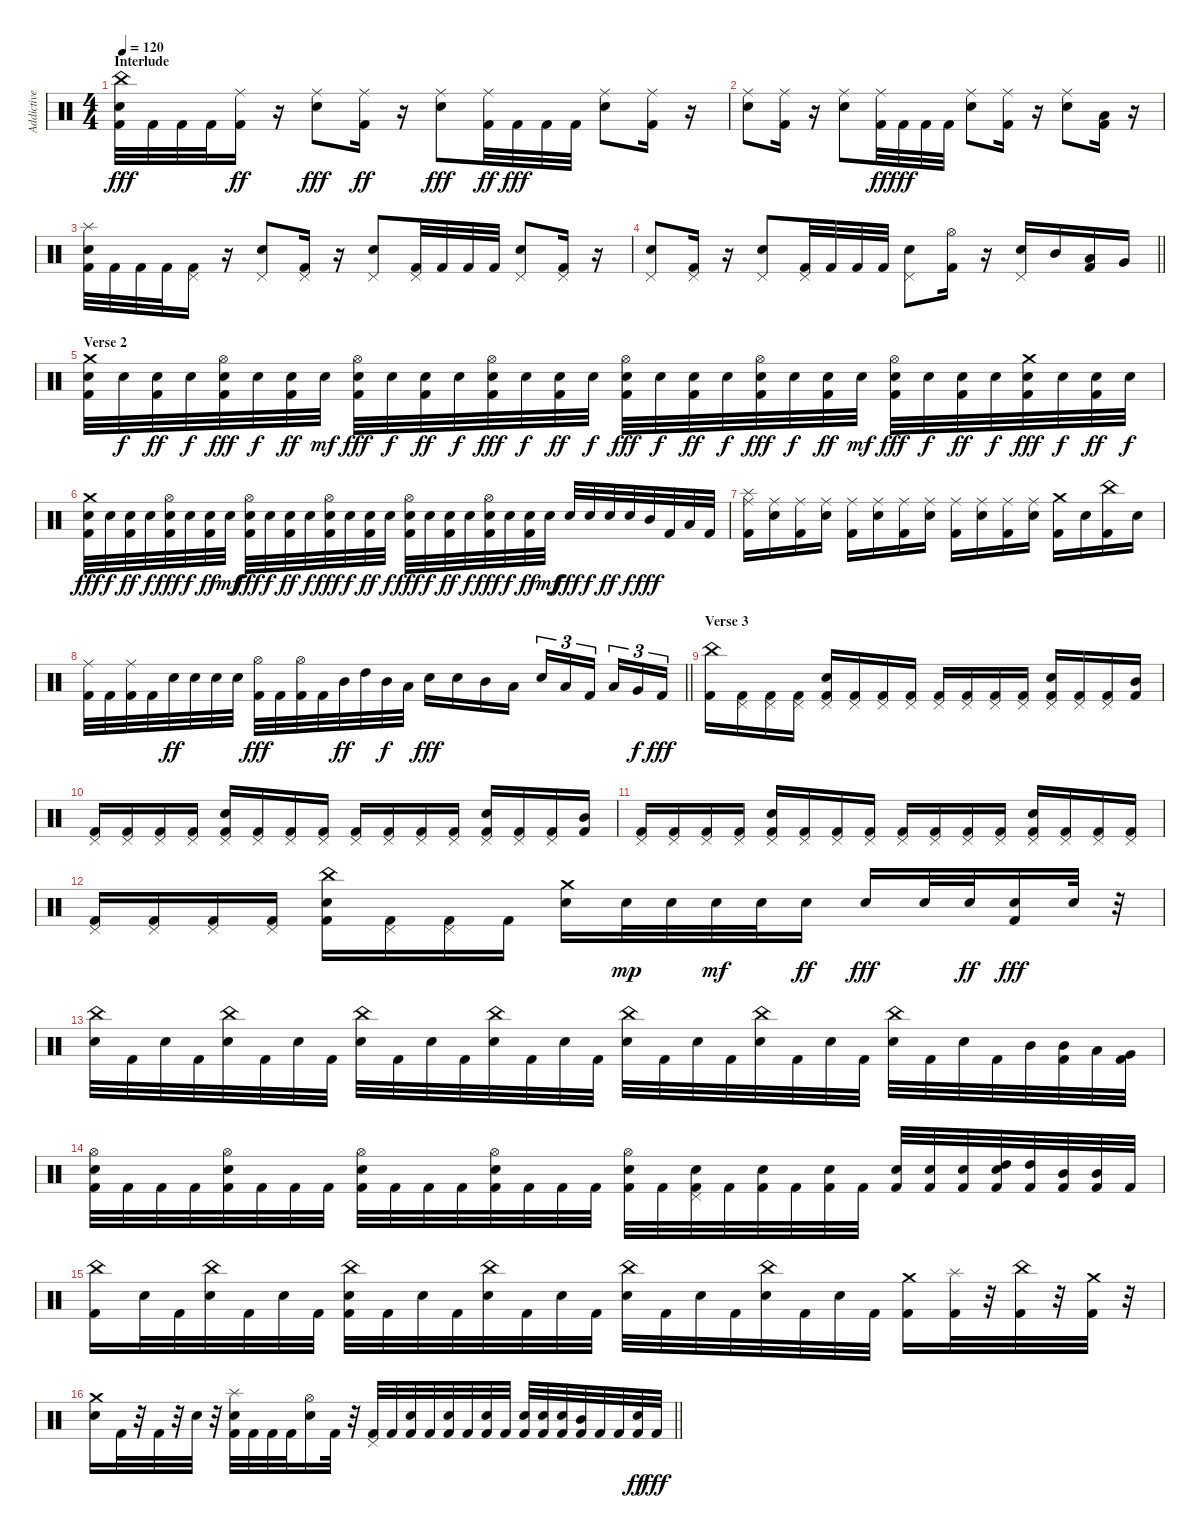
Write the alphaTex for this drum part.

\track ("Addictive Drums 07" "Addictive ") {instrument percussion}
\staff {score}
\articulation defaults
\ts (4 4)
\section ("" "Interlude")
\tempo 120
\clef neutral
\ks c
("Kick (hit) 2" "Snare (hit) 2" "China (hit)").32{dy fff} "Kick (hit) 2".32 "Kick (hit) 2".32 "Kick (hit) 2".32 ("Kick (hit) 2" "Ride (middle)").16{dy ff} r.16 ("Snare (hit) 2" "Ride (middle)").8{dy fff} ("Kick (hit) 2" "Ride (middle)").16{dy ff} r.16 ("Snare (hit) 2" "Ride (middle)").8{dy fff} ("Kick (hit) 2" "Ride (middle)").32{dy ff} "Kick (hit) 2".32{dy fff} "Kick (hit) 2".32 "Kick (hit) 2".32 ("Snare (hit) 2" "Ride (middle)").8 ("Kick (hit) 2" "Ride (middle)").16 r.16 |
("Snare (hit) 2" "Ride (middle)").8 ("Kick (hit) 2" "Ride (middle)").16 r.16 ("Snare (hit) 2" "Ride (middle)").8 ("Kick (hit) 2" "Ride (middle)").32{dy ff} "Kick (hit) 2".32{dy fff} "Kick (hit) 2".32 "Kick (hit) 2".32 ("Snare (hit) 2" "Ride (middle)").8 ("Kick (hit) 2" "Ride (middle)").16 r.16 ("Snare (hit) 2" "Ride (middle)").8 ("Kick (hit) 2" "Low Tom (hit)").16 r.16 |
("Kick (hit) 2" "Snare (hit) 2" "Splash (hit)").32 "Kick (hit) 2".32 "Kick (hit) 2".32 "Kick (hit) 2".32 ("Kick (hit) 2" "Pedal Hi-Hat (hit)").16 r.16 ("Snare (hit) 2" "Pedal Hi-Hat (hit)").8 ("Kick (hit) 2" "Pedal Hi-Hat (hit)").16 r.16 ("Snare (hit) 2" "Pedal Hi-Hat (hit)").8 ("Kick (hit) 2" "Pedal Hi-Hat (hit)").32 "Kick (hit) 2".32 "Kick (hit) 2".32 "Kick (hit) 2".32 ("Snare (hit) 2" "Pedal Hi-Hat (hit)").8 ("Kick (hit) 2" "Pedal Hi-Hat (hit)").16 r.16 |
\barLineRight lightlight
("Snare (hit) 2" "Pedal Hi-Hat (hit)").8 ("Kick (hit) 2" "Pedal Hi-Hat (hit)").16 r.16 ("Snare (hit) 2" "Pedal Hi-Hat (hit)").8 ("Kick (hit) 2" "Pedal Hi-Hat (hit)").32 "Kick (hit) 2".32 "Kick (hit) 2".32 "Kick (hit) 2".32 ("Snare (hit) 2" "Pedal Hi-Hat (hit)").8 ("Kick (hit) 2" "Hi-Hat (open)").16 r.16 ("Snare (hit) 2" "Pedal Hi-Hat (hit)").16 "Mid Tom (hit)".16 ("Kick (hit) 2" "Low Tom (hit)").16 "Very Low Tom (hit)".16 |
\section ("" "Verse 2")
("Kick (hit) 2" "Snare (hit) 2" "Crash medium (hit)").32 "Snare (hit) 2".32{dy f} ("Kick (hit) 2" "Snare (hit) 2").32{dy ff} "Snare (hit) 2".32{dy f} ("Kick (hit) 2" "Snare (hit) 2" "Hi-Hat (open)").32{dy fff} "Snare (hit) 2".32{dy f} ("Kick (hit) 2" "Snare (hit) 2").32{dy ff} "Snare (hit) 2".32{dy mf} ("Kick (hit) 2" "Snare (hit) 2" "Hi-Hat (open)").32{dy fff} "Snare (hit) 2".32{dy f} ("Kick (hit) 2" "Snare (hit) 2").32{dy ff} "Snare (hit) 2".32{dy f} ("Kick (hit) 2" "Snare (hit) 2" "Hi-Hat (open)").32{dy fff} "Snare (hit) 2".32{dy f} ("Kick (hit) 2" "Snare (hit) 2").32{dy ff} "Snare (hit) 2".32{dy f} ("Kick (hit) 2" "Snare (hit) 2" "Hi-Hat (open)").32{dy fff} "Snare (hit) 2".32{dy f} ("Kick (hit) 2" "Snare (hit) 2").32{dy ff} "Snare (hit) 2".32{dy f} ("Kick (hit) 2" "Snare (hit) 2" "Hi-Hat (open)").32{dy fff} "Snare (hit) 2".32{dy f} ("Kick (hit) 2" "Snare (hit) 2").32{dy ff} "Snare (hit) 2".32{dy mf} ("Kick (hit) 2" "Snare (hit) 2" "Hi-Hat (open)").32{dy fff} "Snare (hit) 2".32{dy f} ("Kick (hit) 2" "Snare (hit) 2").32{dy ff} "Snare (hit) 2".32{dy f} ("Kick (hit) 2" "Snare (hit) 2" "Crash medium (hit)").32{dy fff} "Snare (hit) 2".32{dy f} ("Kick (hit) 2" "Snare (hit) 2").32{dy ff} "Snare (hit) 2".32{dy f} |
("Kick (hit) 2" "Snare (hit) 2" "Crash medium (hit)").32{dy fff} "Snare (hit) 2".32{dy f} ("Kick (hit) 2" "Snare (hit) 2").32{dy ff} "Snare (hit) 2".32{dy f} ("Kick (hit) 2" "Snare (hit) 2" "Hi-Hat (open)").32{dy fff} "Snare (hit) 2".32{dy f} ("Kick (hit) 2" "Snare (hit) 2").32{dy ff} "Snare (hit) 2".32{dy mf} ("Kick (hit) 2" "Snare (hit) 2" "Hi-Hat (open)").32{dy fff} "Snare (hit) 2".32{dy f} ("Kick (hit) 2" "Snare (hit) 2").32{dy ff} "Snare (hit) 2".32{dy f} ("Kick (hit) 2" "Snare (hit) 2" "Hi-Hat (open)").32{dy fff} "Snare (hit) 2".32{dy f} ("Kick (hit) 2" "Snare (hit) 2").32{dy ff} "Snare (hit) 2".32{dy f} ("Kick (hit) 2" "Snare (hit) 2" "Hi-Hat (open)").32{dy fff} "Snare (hit) 2".32{dy f} ("Kick (hit) 2" "Snare (hit) 2").32{dy ff} "Snare (hit) 2".32{dy f} ("Kick (hit) 2" "Snare (hit) 2" "Hi-Hat (open)").32{dy fff} "Snare (hit) 2".32{dy f} ("Kick (hit) 2" "Snare (hit) 2").32{dy ff} "Snare (hit) 2".32{dy mf} "Snare (hit) 2".32{dy fff} "Snare (hit) 2".32{dy f} "Snare (hit) 2".32{dy ff} "Snare (hit) 2".32{dy f} "Mid Tom (hit)".32{dy fff} "Kick (hit) 2".32 "Low Tom (hit)".32 "Kick (hit) 2".32 |
("Kick (hit) 2" "Ride (middle)" "Splash (hit)").16 ("Snare (hit) 2" "Ride (middle)").16 ("Kick (hit) 2" "Ride (middle)").16 ("Snare (hit) 2" "Ride (middle)").16 ("Kick (hit) 2" "Ride (middle)").16 ("Snare (hit) 2" "Ride (middle)").16 ("Kick (hit) 2" "Ride (middle)").16 ("Snare (hit) 2" "Ride (middle)").16 ("Kick (hit) 2" "Ride (middle)").16 ("Snare (hit) 2" "Ride (middle)").16 ("Kick (hit) 2" "Ride (middle)").16 ("Snare (hit) 2" "Ride (middle)").16 ("Kick (hit) 2" "Crash medium (hit)").16 "Snare (hit) 2".16 ("Kick (hit) 2" "China (hit)").16 "Snare (hit) 2".16 |
\barLineRight lightlight
("Kick (hit) 2" "Ride (middle)").32 "Kick (hit) 2".32 ("Kick (hit) 2" "Ride (middle)").32 "Kick (hit) 2".32 "Snare (hit) 2".32{dy ff} "Snare (hit) 2".32 "Snare (hit) 2".32 "Snare (hit) 2".32 ("Kick (hit) 2" "Hi-Hat (open)").32{dy fff} "Kick (hit) 2".32 ("Kick (hit) 2" "Hi-Hat (open)").32 "Kick (hit) 2".32 "Mid Tom (hit)".32{dy ff} "High Tom (hit)".32 "Mid Tom (hit)".32{dy f} "Low Tom (hit)".32 "Snare (hit) 2".16{dy fff} "Snare (hit) 2".16 "Mid Tom (hit)".16 "Low Tom (hit)".16 "Snare (hit) 2".16{tu (3 2)} "Low Tom (hit)".16{tu (3 2)} "Kick (hit) 2".16{tu (3 2) beam splitsecondary} "Low Tom (hit)".16{tu (3 2)} "Very Low Tom (hit)".16{tu (3 2) dy f} "Kick (hit) 2".16{tu (3 2) dy fff} |
\section ("" "Verse 3")
("Kick (hit) 2" "China (hit)").16 ("Kick (hit) 2" "Pedal Hi-Hat (hit)").16 ("Kick (hit) 2" "Pedal Hi-Hat (hit)").16 ("Kick (hit) 2" "Pedal Hi-Hat (hit)").16 ("Kick (hit) 2" "Snare (hit) 2" "Pedal Hi-Hat (hit)").16 ("Kick (hit) 2" "Pedal Hi-Hat (hit)").16 ("Kick (hit) 2" "Pedal Hi-Hat (hit)").16 ("Kick (hit) 2" "Pedal Hi-Hat (hit)").16 ("Kick (hit) 2" "Pedal Hi-Hat (hit)").16 ("Kick (hit) 2" "Pedal Hi-Hat (hit)").16 ("Kick (hit) 2" "Pedal Hi-Hat (hit)").16 ("Kick (hit) 2" "Pedal Hi-Hat (hit)").16 ("Kick (hit) 2" "Snare (hit) 2" "Pedal Hi-Hat (hit)").16 ("Kick (hit) 2" "Pedal Hi-Hat (hit)").16 ("Kick (hit) 2" "Pedal Hi-Hat (hit)").16 ("Kick (hit) 2" "Mid Tom (hit)").16 |
("Kick (hit) 2" "Pedal Hi-Hat (hit)").16 ("Kick (hit) 2" "Pedal Hi-Hat (hit)").16 ("Kick (hit) 2" "Pedal Hi-Hat (hit)").16 ("Kick (hit) 2" "Pedal Hi-Hat (hit)").16 ("Kick (hit) 2" "Snare (hit) 2" "Pedal Hi-Hat (hit)").16 ("Kick (hit) 2" "Pedal Hi-Hat (hit)").16 ("Kick (hit) 2" "Pedal Hi-Hat (hit)").16 ("Kick (hit) 2" "Pedal Hi-Hat (hit)").16 ("Kick (hit) 2" "Pedal Hi-Hat (hit)").16 ("Kick (hit) 2" "Pedal Hi-Hat (hit)").16 ("Kick (hit) 2" "Pedal Hi-Hat (hit)").16 ("Kick (hit) 2" "Pedal Hi-Hat (hit)").16 ("Kick (hit) 2" "Snare (hit) 2" "Pedal Hi-Hat (hit)").16 ("Kick (hit) 2" "Pedal Hi-Hat (hit)").16 ("Kick (hit) 2" "Pedal Hi-Hat (hit)").16 ("Kick (hit) 2" "Mid Tom (hit)").16 |
("Kick (hit) 2" "Pedal Hi-Hat (hit)").16 ("Kick (hit) 2" "Pedal Hi-Hat (hit)").16 ("Kick (hit) 2" "Pedal Hi-Hat (hit)").16 ("Kick (hit) 2" "Pedal Hi-Hat (hit)").16 ("Kick (hit) 2" "Snare (hit) 2" "Pedal Hi-Hat (hit)").16 ("Kick (hit) 2" "Pedal Hi-Hat (hit)").16 ("Kick (hit) 2" "Pedal Hi-Hat (hit)").16 ("Kick (hit) 2" "Pedal Hi-Hat (hit)").16 ("Kick (hit) 2" "Pedal Hi-Hat (hit)").16 ("Kick (hit) 2" "Pedal Hi-Hat (hit)").16 ("Kick (hit) 2" "Pedal Hi-Hat (hit)").16 ("Kick (hit) 2" "Pedal Hi-Hat (hit)").16 ("Kick (hit) 2" "Snare (hit) 2" "Pedal Hi-Hat (hit)").16 ("Kick (hit) 2" "Pedal Hi-Hat (hit)").16 ("Kick (hit) 2" "Pedal Hi-Hat (hit)").16 ("Kick (hit) 2" "Pedal Hi-Hat (hit)").16 |
("Kick (hit) 2" "Pedal Hi-Hat (hit)").16 ("Kick (hit) 2" "Pedal Hi-Hat (hit)").16 ("Kick (hit) 2" "Pedal Hi-Hat (hit)").16 ("Kick (hit) 2" "Pedal Hi-Hat (hit)").16 ("Kick (hit) 2" "Snare (hit) 2" "China (hit)").16 ("Kick (hit) 2" "Pedal Hi-Hat (hit)").16 ("Kick (hit) 2" "Pedal Hi-Hat (hit)").16 "Kick (hit) 2".16 ("Snare (hit) 2" "Crash medium (hit)").16 "Snare (hit) 2".32{dy mp} "Snare (hit) 2".32 "Snare (hit) 2".32{dy mf} "Snare (hit) 2".32 "Snare (hit) 2".16{dy ff} "Snare (hit) 2".16{dy fff} "Snare (hit) 2".32 "Snare (hit) 2".32{dy ff} ("Kick (hit) 2" "Snare (hit) 2").16{dy fff} "Snare (hit) 2".32 r.32 |
("Snare (hit) 2" "China (hit)").32 "Kick (hit) 2".32 "Snare (hit) 2".32 "Kick (hit) 2".32 ("Snare (hit) 2" "China (hit)").32 "Kick (hit) 2".32 "Snare (hit) 2".32 "Kick (hit) 2".32 ("Snare (hit) 2" "China (hit)").32 "Kick (hit) 2".32 "Snare (hit) 2".32 "Kick (hit) 2".32 ("Snare (hit) 2" "China (hit)").32 "Kick (hit) 2".32 "Snare (hit) 2".32 "Kick (hit) 2".32 ("Snare (hit) 2" "China (hit)").32 "Kick (hit) 2".32 "Snare (hit) 2".32 "Kick (hit) 2".32 ("Snare (hit) 2" "China (hit)").32 "Kick (hit) 2".32 "Snare (hit) 2".32 "Kick (hit) 2".32 ("Snare (hit) 2" "China (hit)").32 "Kick (hit) 2".32 "Snare (hit) 2".32 "Kick (hit) 2".32 "Mid Tom (hit)".32 ("Kick (hit) 2" "Mid Tom (hit)").32 "Low Tom (hit)".32 ("Kick (hit) 2" "Very Low Tom (hit)").32 |
("Kick (hit) 2" "Snare (hit) 2" "Hi-Hat (open)").32 "Kick (hit) 2".32 "Kick (hit) 2".32 "Kick (hit) 2".32 ("Kick (hit) 2" "Snare (hit) 2" "Hi-Hat (open)").32 "Kick (hit) 2".32 "Kick (hit) 2".32 "Kick (hit) 2".32 ("Kick (hit) 2" "Snare (hit) 2" "Hi-Hat (open)").32 "Kick (hit) 2".32 "Kick (hit) 2".32 "Kick (hit) 2".32 ("Kick (hit) 2" "Snare (hit) 2" "Hi-Hat (open)").32 "Kick (hit) 2".32 "Kick (hit) 2".32 "Kick (hit) 2".32 ("Kick (hit) 2" "Snare (hit) 2" "Hi-Hat (open)").32 "Kick (hit) 2".32 ("Kick (hit) 2" "Snare (hit) 2" "Pedal Hi-Hat (hit)").32 "Kick (hit) 2".32 ("Kick (hit) 2" "Snare (hit) 2").32 "Kick (hit) 2".32 ("Kick (hit) 2" "Snare (hit) 2").32 "Kick (hit) 2".32 ("Kick (hit) 2" "Snare (hit) 2").32 ("Kick (hit) 2" "Snare (hit) 2").32 ("Kick (hit) 2" "Snare (hit) 2").32 ("Kick (hit) 2" "Snare (hit) 2" "High Tom (hit)").32 ("Kick (hit) 2" "High Tom (hit)").32 ("Kick (hit) 2" "Mid Tom (hit)").32 ("Kick (hit) 2" "Mid Tom (hit)").32 "Kick (hit) 2".32 |
("Kick (hit) 2" "China (hit)").16 "Snare (hit) 2".32 "Kick (hit) 2".32 ("Snare (hit) 2" "China (hit)").32 "Kick (hit) 2".32 "Snare (hit) 2".32 "Kick (hit) 2".32 ("Kick (hit) 2" "Snare (hit) 2" "China (hit)").32 "Kick (hit) 2".32 "Snare (hit) 2".32 "Kick (hit) 2".32 ("Snare (hit) 2" "China (hit)").32 "Kick (hit) 2".32 "Snare (hit) 2".32 "Kick (hit) 2".32 ("Snare (hit) 2" "China (hit)").32 "Kick (hit) 2".32 "Snare (hit) 2".32 "Kick (hit) 2".32 ("Snare (hit) 2" "China (hit)").32 "Kick (hit) 2".32 "Snare (hit) 2".32 "Kick (hit) 2".32 ("Kick (hit) 2" "Crash medium (hit)").16 ("Kick (hit) 2" "Splash (hit)").32 r.32 ("Kick (hit) 2" "China (hit)").32 r.32 ("Kick (hit) 2" "Crash medium (hit)").32 r.32 |
\barLineRight lightlight
("Snare (hit) 2" "Crash medium (hit)").16 "Kick (hit) 2".32 r.32 "Kick (hit) 2".32 r.32 "Snare (hit) 2".32 r.32 ("Kick (hit) 2" "Snare (hit) 2" "Splash (hit)").32 "Kick (hit) 2".32 "Kick (hit) 2".32 "Kick (hit) 2".32 ("Snare (hit) 2" "Hi-Hat (open)").16 "Kick (hit) 2".32 r.32 ("Kick (hit) 2" "Pedal Hi-Hat (hit)").32 "Kick (hit) 2".32 ("Kick (hit) 2" "Snare (hit) 2").32 "Kick (hit) 2".32 ("Kick (hit) 2" "Snare (hit) 2").32 "Kick (hit) 2".32 ("Kick (hit) 2" "Snare (hit) 2").32 "Kick (hit) 2".32 ("Kick (hit) 2" "Snare (hit) 2").32 ("Kick (hit) 2" "Snare (hit) 2").32 ("Kick (hit) 2" "Snare (hit) 2").32 ("Kick (hit) 2" "Mid Tom (hit)").32 "Kick (hit) 2".32 "Kick (hit) 2".32 ("Kick (hit) 2" "Snare (hit) 2").32{dy ff} "Kick (hit) 2".32{dy fff}
